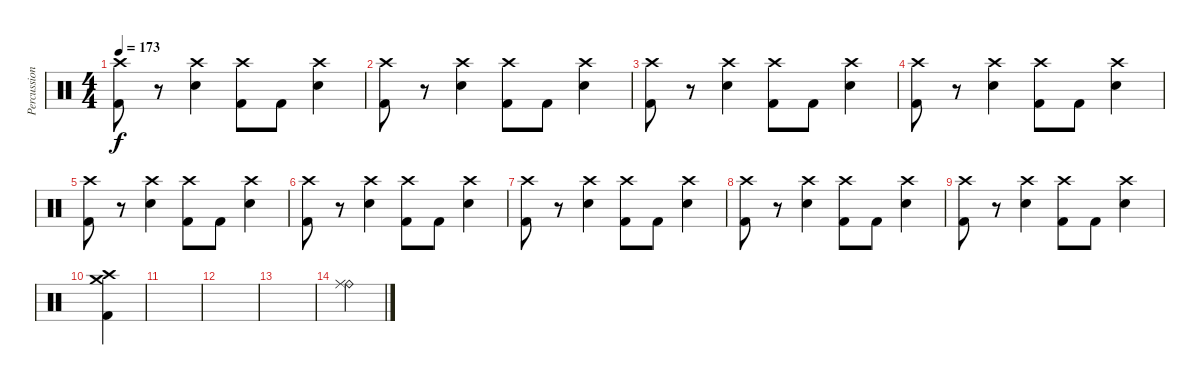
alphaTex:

\track ("Percussion" "Percussion") {instrument percussion}
\staff {score}
\articulation defaults
\ts (4 4)
\tempo 173
\clef neutral
\ks c
("Kick (hit) 2" "Crash high (hit)").8{dy f} r.8 ("Electric Snare (hit)" "Crash high (hit)").4 ("Kick (hit) 2" "Crash high (hit)").8 "Kick (hit) 2".8 ("Electric Snare (hit)" "Crash high (hit)").4 |
("Kick (hit) 2" "Crash high (hit)").8 r.8 ("Electric Snare (hit)" "Crash high (hit)").4 ("Kick (hit) 2" "Crash high (hit)").8 "Kick (hit) 2".8 ("Electric Snare (hit)" "Crash high (hit)").4 |
("Kick (hit) 2" "Crash high (hit)").8 r.8 ("Electric Snare (hit)" "Crash high (hit)").4 ("Kick (hit) 2" "Crash high (hit)").8 "Kick (hit) 2".8 ("Electric Snare (hit)" "Crash high (hit)").4 |
("Kick (hit) 2" "Crash high (hit)").8 r.8 ("Electric Snare (hit)" "Crash high (hit)").4 ("Kick (hit) 2" "Crash high (hit)").8 "Kick (hit) 2".8 ("Electric Snare (hit)" "Crash high (hit)").4 |
("Kick (hit) 2" "Crash high (hit)").8 r.8 ("Electric Snare (hit)" "Crash high (hit)").4 ("Kick (hit) 2" "Crash high (hit)").8 "Kick (hit) 2".8 ("Electric Snare (hit)" "Crash high (hit)").4 |
("Kick (hit) 2" "Crash high (hit)").8 r.8 ("Electric Snare (hit)" "Crash high (hit)").4 ("Kick (hit) 2" "Crash high (hit)").8 "Kick (hit) 2".8 ("Electric Snare (hit)" "Crash high (hit)").4 |
("Kick (hit) 2" "Crash high (hit)").8 r.8 ("Electric Snare (hit)" "Crash high (hit)").4 ("Kick (hit) 2" "Crash high (hit)").8 "Kick (hit) 2".8 ("Electric Snare (hit)" "Crash high (hit)").4 |
("Kick (hit) 2" "Crash high (hit)").8 r.8 ("Electric Snare (hit)" "Crash high (hit)").4 ("Kick (hit) 2" "Crash high (hit)").8 "Kick (hit) 2".8 ("Electric Snare (hit)" "Crash high (hit)").4 |
("Kick (hit) 2" "Crash high (hit)").8 r.8 ("Electric Snare (hit)" "Crash high (hit)").4 ("Kick (hit) 2" "Crash high (hit)").8 "Kick (hit) 2".8 ("Electric Snare (hit)" "Crash high (hit)").4 |
("Kick (hit) 2" "Crash medium (hit)" "Crash high (hit)").4 |
|
|
|
("Ride (bell)" "Ride (middle)").4
